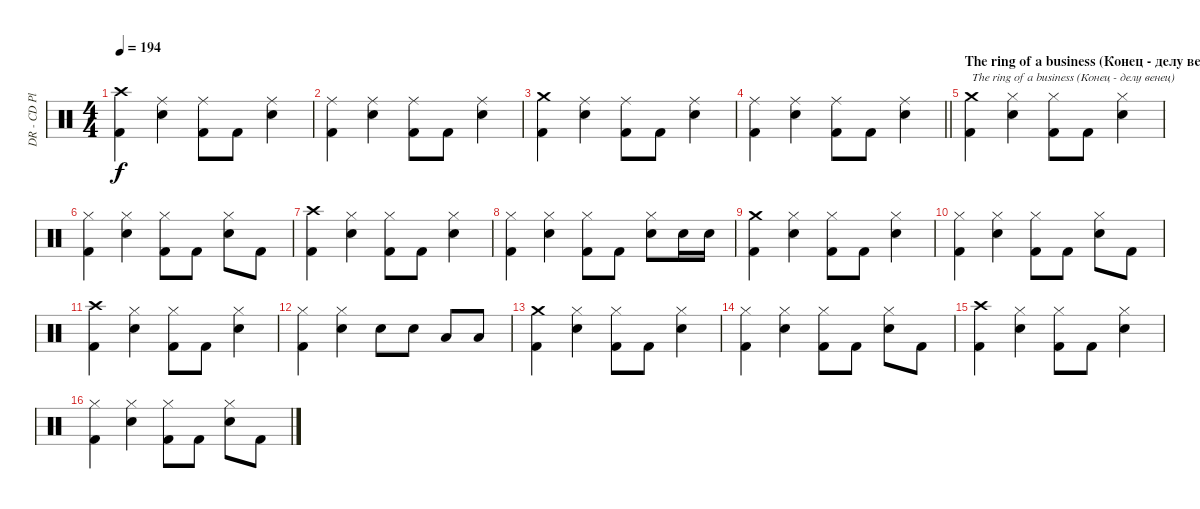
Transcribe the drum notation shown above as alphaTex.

\track ("DR - CD Player" "DR - CD Pl") {instrument percussion}
\staff {score}
\articulation defaults
\ts (4 4)
\tempo 194
\clef neutral
\ks c
("Kick (hit) 2" "Crash high (hit)").4{dy f} ("Electric Snare (hit)" "Ride (middle)").4 ("Kick (hit) 2" "Ride (middle)").8 "Kick (hit) 2".8 ("Electric Snare (hit)" "Ride (middle)").4 |
("Kick (hit) 2" "Ride (middle)").4 ("Electric Snare (hit)" "Ride (middle)").4 ("Kick (hit) 2" "Ride (middle)").8 "Kick (hit) 2".8 ("Electric Snare (hit)" "Ride (middle)").4 |
("Kick (hit) 2" "Crash medium (hit)").4 ("Electric Snare (hit)" "Ride (middle)").4 ("Kick (hit) 2" "Ride (middle)").8 "Kick (hit) 2".8 ("Electric Snare (hit)" "Ride (middle)").4 |
\barLineRight lightlight
("Kick (hit) 2" "Ride (middle)").4 ("Electric Snare (hit)" "Ride (middle)").4 ("Kick (hit) 2" "Ride (middle)").8 "Kick (hit) 2".8 ("Electric Snare (hit)" "Ride (middle)").4 |
\section ("" "The ring of a business (Конец - делу венец)")
("Kick (hit) 2" "Crash medium (hit)").4{txt "The ring of a business (Конец - делу венец)"} ("Electric Snare (hit)" "Hi-Hat (closed)").4 ("Kick (hit) 2" "Hi-Hat (closed)").8 "Kick (hit) 2".8 ("Electric Snare (hit)" "Hi-Hat (closed)").4 |
("Kick (hit) 2" "Hi-Hat (closed)").4 ("Electric Snare (hit)" "Hi-Hat (closed)").4 ("Kick (hit) 2" "Hi-Hat (closed)").8 "Kick (hit) 2".8 ("Electric Snare (hit)" "Hi-Hat (closed)").8 "Kick (hit) 2".8 |
("Kick (hit) 2" "Crash high (hit)").4 ("Electric Snare (hit)" "Hi-Hat (closed)").4 ("Kick (hit) 2" "Hi-Hat (closed)").8 "Kick (hit) 2".8 ("Electric Snare (hit)" "Hi-Hat (closed)").4 |
("Kick (hit) 2" "Hi-Hat (closed)").4 ("Electric Snare (hit)" "Hi-Hat (closed)").4 ("Kick (hit) 2" "Hi-Hat (closed)").8 "Kick (hit) 2".8 ("Electric Snare (hit)" "Hi-Hat (closed)").8 "Electric Snare (hit)".16 "Electric Snare (hit)".16 |
("Kick (hit) 2" "Crash medium (hit)").4 ("Electric Snare (hit)" "Hi-Hat (closed)").4 ("Kick (hit) 2" "Hi-Hat (closed)").8 "Kick (hit) 2".8 ("Electric Snare (hit)" "Hi-Hat (closed)").4 |
("Kick (hit) 2" "Hi-Hat (closed)").4 ("Electric Snare (hit)" "Hi-Hat (closed)").4 ("Kick (hit) 2" "Hi-Hat (closed)").8 "Kick (hit) 2".8 ("Electric Snare (hit)" "Hi-Hat (closed)").8 "Kick (hit) 2".8 |
("Kick (hit) 2" "Crash high (hit)").4 ("Electric Snare (hit)" "Hi-Hat (closed)").4 ("Kick (hit) 2" "Hi-Hat (closed)").8 "Kick (hit) 2".8 ("Electric Snare (hit)" "Hi-Hat (closed)").4 |
("Kick (hit) 2" "Hi-Hat (closed)").4 ("Electric Snare (hit)" "Hi-Hat (closed)").4 "Electric Snare (hit)".8 "Electric Snare (hit)".8 "Low Tom (hit)".8 "Low Tom (hit)".8 |
("Kick (hit) 2" "Crash medium (hit)").4 ("Electric Snare (hit)" "Hi-Hat (closed)").4 ("Kick (hit) 2" "Hi-Hat (closed)").8 "Kick (hit) 2".8 ("Electric Snare (hit)" "Hi-Hat (closed)").4 |
("Kick (hit) 2" "Hi-Hat (closed)").4 ("Electric Snare (hit)" "Hi-Hat (closed)").4 ("Kick (hit) 2" "Hi-Hat (closed)").8 "Kick (hit) 2".8 ("Electric Snare (hit)" "Hi-Hat (closed)").8 "Kick (hit) 2".8 |
("Kick (hit) 2" "Crash high (hit)").4 ("Electric Snare (hit)" "Hi-Hat (closed)").4 ("Kick (hit) 2" "Hi-Hat (closed)").8 "Kick (hit) 2".8 ("Electric Snare (hit)" "Hi-Hat (closed)").4 |
("Kick (hit) 2" "Hi-Hat (closed)").4 ("Electric Snare (hit)" "Hi-Hat (closed)").4 ("Kick (hit) 2" "Hi-Hat (closed)").8 "Kick (hit) 2".8 ("Electric Snare (hit)" "Hi-Hat (closed)").8 "Kick (hit) 2".8
